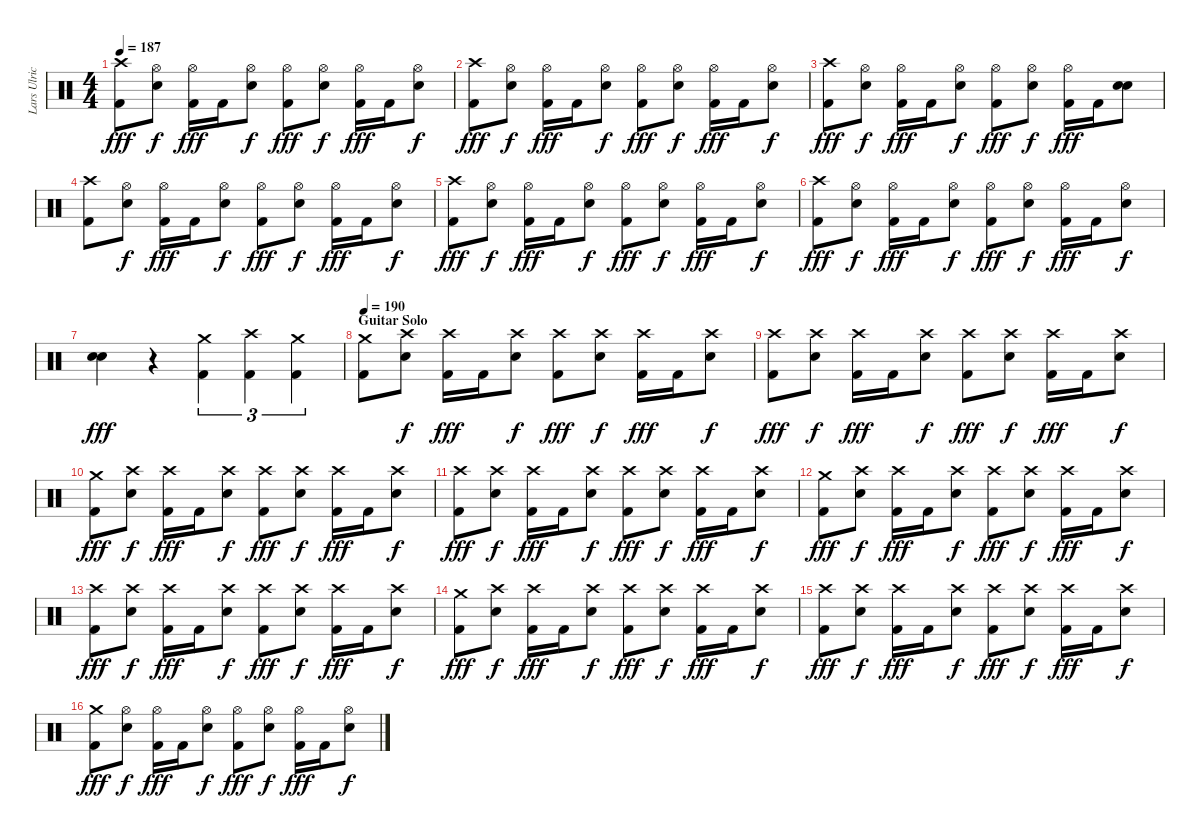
\track ("Lars Ulrich" "Lars Ulric") {instrument percussion}
\staff {score}
\articulation defaults
\ts (4 4)
\tempo 187
\clef neutral
\ks c
("Crash high (hit)" "Kick (hit) 2").8{dy fff} ("Hi-Hat (open)" "Electric Snare (hit)").8{dy f} ("Hi-Hat (open)" "Kick (hit) 2").16{dy fff} "Kick (hit) 2".16 ("Hi-Hat (open)" "Electric Snare (hit)").8{dy f} ("Hi-Hat (open)" "Kick (hit) 2").8{dy fff} ("Hi-Hat (open)" "Electric Snare (hit)").8{dy f} ("Hi-Hat (open)" "Kick (hit) 2").16{dy fff} "Kick (hit) 2".16 ("Hi-Hat (open)" "Electric Snare (hit)").8{dy f} |
("Crash high (hit)" "Kick (hit) 2").8{dy fff} ("Hi-Hat (open)" "Electric Snare (hit)").8{dy f} ("Hi-Hat (open)" "Kick (hit) 2").16{dy fff} "Kick (hit) 2".16 ("Hi-Hat (open)" "Electric Snare (hit)").8{dy f} ("Hi-Hat (open)" "Kick (hit) 2").8{dy fff} ("Hi-Hat (open)" "Electric Snare (hit)").8{dy f} ("Hi-Hat (open)" "Kick (hit) 2").16{dy fff} "Kick (hit) 2".16 ("Hi-Hat (open)" "Electric Snare (hit)").8{dy f} |
("Crash high (hit)" "Kick (hit) 2").8{dy fff} ("Hi-Hat (open)" "Electric Snare (hit)").8{dy f} ("Hi-Hat (open)" "Kick (hit) 2").16{dy fff} "Kick (hit) 2".16 ("Hi-Hat (open)" "Electric Snare (hit)").8{dy f} ("Hi-Hat (open)" "Kick (hit) 2").8{dy fff} ("Hi-Hat (open)" "Electric Snare (hit)").8{dy f} ("Hi-Hat (open)" "Kick (hit) 2").16{dy fff} "Kick (hit) 2".16 ("Electric Snare (hit)" "Electric Snare (hit)").8{bu 120} |
("Crash high (hit)" "Kick (hit) 2").8 ("Hi-Hat (open)" "Electric Snare (hit)").8{dy f} ("Hi-Hat (open)" "Kick (hit) 2").16{dy fff} "Kick (hit) 2".16 ("Hi-Hat (open)" "Electric Snare (hit)").8{dy f} ("Hi-Hat (open)" "Kick (hit) 2").8{dy fff} ("Hi-Hat (open)" "Electric Snare (hit)").8{dy f} ("Hi-Hat (open)" "Kick (hit) 2").16{dy fff} "Kick (hit) 2".16 ("Hi-Hat (open)" "Electric Snare (hit)").8{dy f} |
("Crash high (hit)" "Kick (hit) 2").8{dy fff} ("Hi-Hat (open)" "Electric Snare (hit)").8{dy f} ("Hi-Hat (open)" "Kick (hit) 2").16{dy fff} "Kick (hit) 2".16 ("Hi-Hat (open)" "Electric Snare (hit)").8{dy f} ("Hi-Hat (open)" "Kick (hit) 2").8{dy fff} ("Hi-Hat (open)" "Electric Snare (hit)").8{dy f} ("Hi-Hat (open)" "Kick (hit) 2").16{dy fff} "Kick (hit) 2".16 ("Hi-Hat (open)" "Electric Snare (hit)").8{dy f} |
("Crash high (hit)" "Kick (hit) 2").8{dy fff} ("Hi-Hat (open)" "Electric Snare (hit)").8{dy f} ("Hi-Hat (open)" "Kick (hit) 2").16{dy fff} "Kick (hit) 2".16 ("Hi-Hat (open)" "Electric Snare (hit)").8{dy f} ("Hi-Hat (open)" "Kick (hit) 2").8{dy fff} ("Hi-Hat (open)" "Electric Snare (hit)").8{dy f} ("Hi-Hat (open)" "Kick (hit) 2").16{dy fff} "Kick (hit) 2".16 ("Hi-Hat (open)" "Electric Snare (hit)").8{dy f} |
("Electric Snare (hit)" "Electric Snare (hit)").4{bu 120 dy fff} r.4 ("Crash medium (hit)" "Kick (hit) 2").4{tu (3 2)} ("Crash high (hit)" "Kick (hit) 2").4{tu (3 2)} ("Crash medium (hit)" "Kick (hit) 2").4{tu (3 2)} |
\section ("" "Guitar Solo")
\tempo 190
("Crash medium (hit)" "Kick (hit) 2").8 ("Crash high (hit)" "Electric Snare (hit)").8{dy f} ("Crash high (hit)" "Kick (hit) 2").16{dy fff} "Kick (hit) 2".16 ("Crash high (hit)" "Electric Snare (hit)").8{dy f} ("Crash high (hit)" "Kick (hit) 2").8{dy fff} ("Crash high (hit)" "Electric Snare (hit)").8{dy f} ("Crash high (hit)" "Kick (hit) 2").16{dy fff} "Kick (hit) 2".16 ("Crash high (hit)" "Electric Snare (hit)").8{dy f} |
("Crash high (hit)" "Kick (hit) 2").8{dy fff} ("Crash high (hit)" "Electric Snare (hit)").8{dy f} ("Crash high (hit)" "Kick (hit) 2").16{dy fff} "Kick (hit) 2".16 ("Crash high (hit)" "Electric Snare (hit)").8{dy f} ("Crash high (hit)" "Kick (hit) 2").8{dy fff} ("Crash high (hit)" "Electric Snare (hit)").8{dy f} ("Crash high (hit)" "Kick (hit) 2").16{dy fff} "Kick (hit) 2".16 ("Crash high (hit)" "Electric Snare (hit)").8{dy f} |
("Crash medium (hit)" "Kick (hit) 2").8{dy fff} ("Crash high (hit)" "Electric Snare (hit)").8{dy f} ("Crash high (hit)" "Kick (hit) 2").16{dy fff} "Kick (hit) 2".16 ("Crash high (hit)" "Electric Snare (hit)").8{dy f} ("Crash high (hit)" "Kick (hit) 2").8{dy fff} ("Crash high (hit)" "Electric Snare (hit)").8{dy f} ("Crash high (hit)" "Kick (hit) 2").16{dy fff} "Kick (hit) 2".16 ("Crash high (hit)" "Electric Snare (hit)").8{dy f} |
("Crash high (hit)" "Kick (hit) 2").8{dy fff} ("Crash high (hit)" "Electric Snare (hit)").8{dy f} ("Crash high (hit)" "Kick (hit) 2").16{dy fff} "Kick (hit) 2".16 ("Crash high (hit)" "Electric Snare (hit)").8{dy f} ("Crash high (hit)" "Kick (hit) 2").8{dy fff} ("Crash high (hit)" "Electric Snare (hit)").8{dy f} ("Crash high (hit)" "Kick (hit) 2").16{dy fff} "Kick (hit) 2".16 ("Crash high (hit)" "Electric Snare (hit)").8{dy f} |
("Crash medium (hit)" "Kick (hit) 2").8{dy fff} ("Crash high (hit)" "Electric Snare (hit)").8{dy f} ("Crash high (hit)" "Kick (hit) 2").16{dy fff} "Kick (hit) 2".16 ("Crash high (hit)" "Electric Snare (hit)").8{dy f} ("Crash high (hit)" "Kick (hit) 2").8{dy fff} ("Crash high (hit)" "Electric Snare (hit)").8{dy f} ("Crash high (hit)" "Kick (hit) 2").16{dy fff} "Kick (hit) 2".16 ("Crash high (hit)" "Electric Snare (hit)").8{dy f} |
("Crash high (hit)" "Kick (hit) 2").8{dy fff} ("Crash high (hit)" "Electric Snare (hit)").8{dy f} ("Crash high (hit)" "Kick (hit) 2").16{dy fff} "Kick (hit) 2".16 ("Crash high (hit)" "Electric Snare (hit)").8{dy f} ("Crash high (hit)" "Kick (hit) 2").8{dy fff} ("Crash high (hit)" "Electric Snare (hit)").8{dy f} ("Crash high (hit)" "Kick (hit) 2").16{dy fff} "Kick (hit) 2".16 ("Crash high (hit)" "Electric Snare (hit)").8{dy f} |
("Crash medium (hit)" "Kick (hit) 2").8{dy fff} ("Crash high (hit)" "Electric Snare (hit)").8{dy f} ("Crash high (hit)" "Kick (hit) 2").16{dy fff} "Kick (hit) 2".16 ("Crash high (hit)" "Electric Snare (hit)").8{dy f} ("Crash high (hit)" "Kick (hit) 2").8{dy fff} ("Crash high (hit)" "Electric Snare (hit)").8{dy f} ("Crash high (hit)" "Kick (hit) 2").16{dy fff} "Kick (hit) 2".16 ("Crash high (hit)" "Electric Snare (hit)").8{dy f} |
("Crash high (hit)" "Kick (hit) 2").8{dy fff} ("Crash high (hit)" "Electric Snare (hit)").8{dy f} ("Crash high (hit)" "Kick (hit) 2").16{dy fff} "Kick (hit) 2".16 ("Crash high (hit)" "Electric Snare (hit)").8{dy f} ("Crash high (hit)" "Kick (hit) 2").8{dy fff} ("Crash high (hit)" "Electric Snare (hit)").8{dy f} ("Crash high (hit)" "Kick (hit) 2").16{dy fff} "Kick (hit) 2".16 ("Crash high (hit)" "Electric Snare (hit)").8{dy f} |
("Crash medium (hit)" "Kick (hit) 2").8{dy fff} ("Hi-Hat (open)" "Electric Snare (hit)").8{dy f} ("Hi-Hat (open)" "Kick (hit) 2").16{dy fff} "Kick (hit) 2".16 ("Hi-Hat (open)" "Electric Snare (hit)").8{dy f} ("Hi-Hat (open)" "Kick (hit) 2").8{dy fff} ("Hi-Hat (open)" "Electric Snare (hit)").8{dy f} ("Hi-Hat (open)" "Kick (hit) 2").16{dy fff} "Kick (hit) 2".16 ("Hi-Hat (open)" "Electric Snare (hit)").8{dy f}
